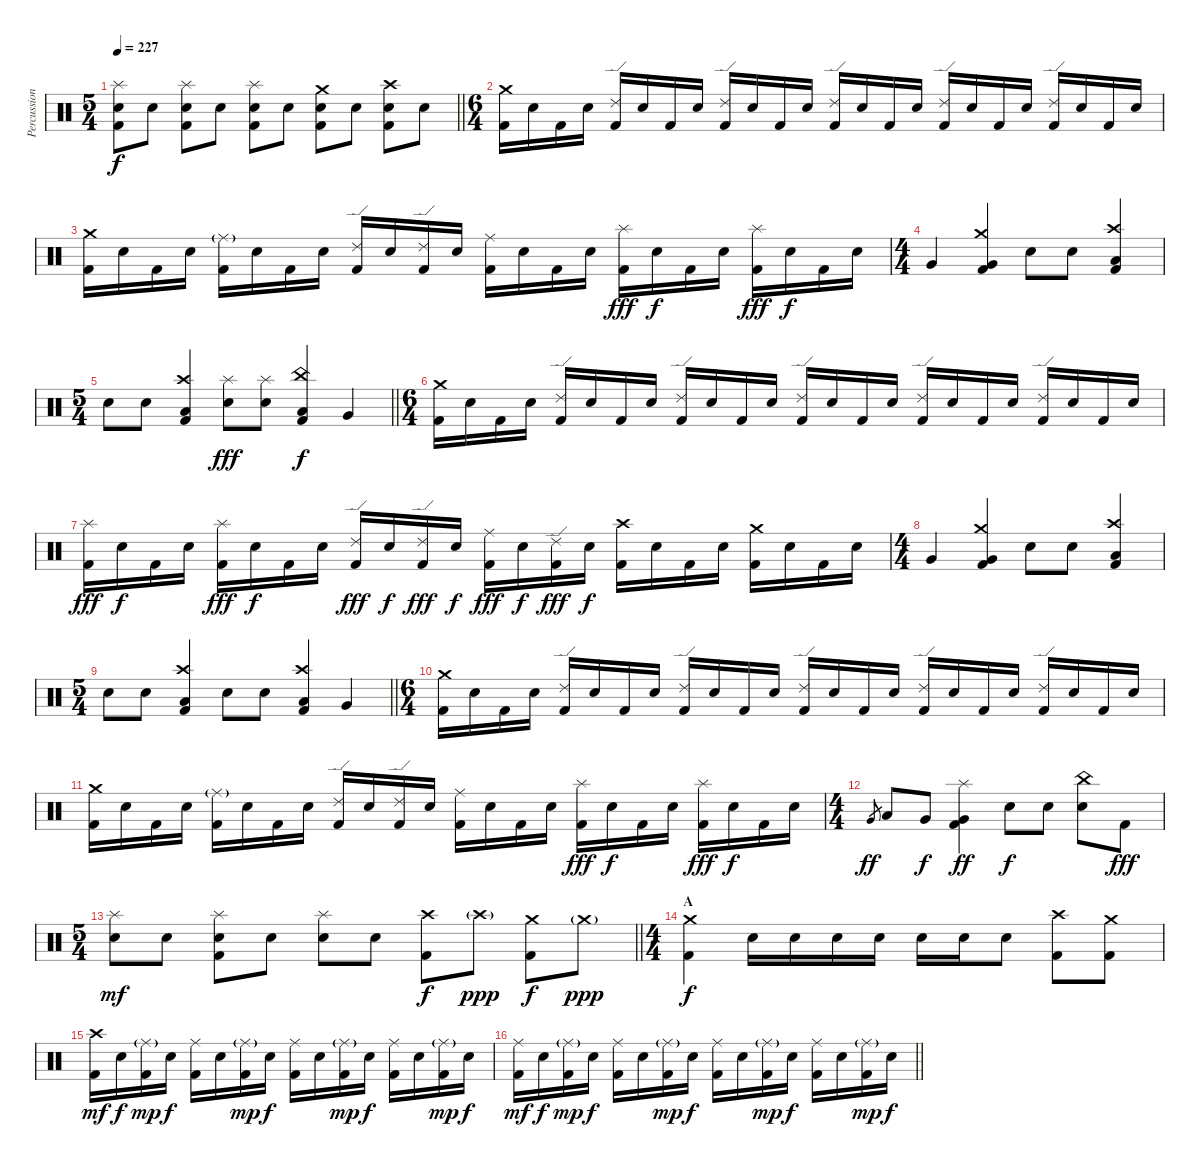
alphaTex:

\track ("Percussion" "Percussion") {instrument percussion}
\staff {score}
\articulation defaults
\ts (5 4)
\tempo 227
\clef neutral
\barLineRight lightlight
\ks c
("Splash (hit)" "Electric Snare (hit)" "Kick (hit) 2").8{dy f} "Electric Snare (hit)".8 ("Splash (hit)" "Electric Snare (hit)" "Kick (hit) 2").8 "Electric Snare (hit)".8 ("Splash (hit)" "Electric Snare (hit)" "Kick (hit) 2").8 "Electric Snare (hit)".8 ("Crash medium (hit)" "Electric Snare (hit)" "Kick (hit) 2").8 "Electric Snare (hit)".8 ("Crash high (hit)" "Electric Snare (hit)" "Kick (hit) 2").8 "Electric Snare (hit)".8 |
\ts (6 4)
\section ("" "")
("Crash medium (hit)" "Kick (hit) 2").16 "Electric Snare (hit)".16 "Kick (hit) 2".16 "Electric Snare (hit)".16 ("Ride (edge) 2" "Kick (hit) 2").16 "Electric Snare (hit)".16 "Kick (hit) 2".16 "Electric Snare (hit)".16 ("Ride (edge) 2" "Kick (hit) 2").16 "Electric Snare (hit)".16 "Kick (hit) 2".16 "Electric Snare (hit)".16 ("Ride (edge) 2" "Kick (hit) 2").16 "Electric Snare (hit)".16 "Kick (hit) 2".16 "Electric Snare (hit)".16 ("Ride (edge) 2" "Kick (hit) 2").16 "Electric Snare (hit)".16 "Kick (hit) 2".16 "Electric Snare (hit)".16 ("Ride (edge) 2" "Kick (hit) 2").16 "Electric Snare (hit)".16 "Kick (hit) 2".16 "Electric Snare (hit)".16 |
("Crash medium (hit)" "Kick (hit) 2").16 "Electric Snare (hit)".16 "Kick (hit) 2".16 "Electric Snare (hit)".16 ("Ride (middle)"{g} "Kick (hit) 2").16 "Electric Snare (hit)".16 "Kick (hit) 2".16 "Electric Snare (hit)".16 ("Ride (edge) 2" "Kick (hit) 2").16 "Electric Snare (hit)".16 ("Ride (edge) 2" "Kick (hit) 2").16 "Electric Snare (hit)".16 ("Ride (middle)" "Kick (hit) 2").16 "Electric Snare (hit)".16 "Kick (hit) 2".16 "Electric Snare (hit)".16 ("Splash (hit)" "Kick (hit) 2").16{dy fff} "Electric Snare (hit)".16{dy f} "Kick (hit) 2".16 "Electric Snare (hit)".16 ("Splash (hit)" "Kick (hit) 2").16{dy fff} "Electric Snare (hit)".16{dy f} "Kick (hit) 2".16 "Electric Snare (hit)".16 |
\ts (4 4)
"Very Low Tom (hit)".4 ("Crash medium (hit)" "Very Low Tom (hit)" "Kick (hit) 2").4 "Electric Snare (hit)".8 "Electric Snare (hit)".8 ("Crash high (hit)" "Low Tom (hit)" "Kick (hit) 2").4 |
\ts (5 4)
\barLineRight lightlight "Electric Snare (hit)".8 "Electric Snare (hit)".8
("Crash high (hit)" "Low Tom (hit)" "Kick (hit) 2").4 ("Splash (hit)" "Electric Snare (hit)").8{dy fff} ("Splash (hit)" "Electric Snare (hit)").8 ("China (hit)" "Low Floor Tom (hit)" "Kick (hit) 2").4{dy f} "Very Low Tom (hit)".4 |
\ts (6 4)
\section ("" "")
("Crash medium (hit)" "Kick (hit) 2").16 "Electric Snare (hit)".16 "Kick (hit) 2".16 "Electric Snare (hit)".16 ("Ride (edge) 2" "Kick (hit) 2").16 "Electric Snare (hit)".16 "Kick (hit) 2".16 "Electric Snare (hit)".16 ("Ride (edge) 2" "Kick (hit) 2").16 "Electric Snare (hit)".16 "Kick (hit) 2".16 "Electric Snare (hit)".16 ("Ride (edge) 2" "Kick (hit) 2").16 "Electric Snare (hit)".16 "Kick (hit) 2".16 "Electric Snare (hit)".16 ("Ride (edge) 2" "Kick (hit) 2").16 "Electric Snare (hit)".16 "Kick (hit) 2".16 "Electric Snare (hit)".16 ("Ride (edge) 2" "Kick (hit) 2").16 "Electric Snare (hit)".16 "Kick (hit) 2".16 "Electric Snare (hit)".16 |
("Splash (hit)" "Kick (hit) 2").16{dy fff} "Electric Snare (hit)".16{dy f} "Kick (hit) 2".16 "Electric Snare (hit)".16 ("Splash (hit)" "Kick (hit) 2").16{dy fff} "Electric Snare (hit)".16{dy f} "Kick (hit) 2".16 "Electric Snare (hit)".16 ("Ride (edge) 2" "Kick (hit) 2").16{dy fff} "Electric Snare (hit)".16{dy f} ("Ride (edge) 2" "Kick (hit) 2").16{dy fff} "Electric Snare (hit)".16{dy f} ("Ride (middle)" "Kick (hit) 2").16{dy fff} "Electric Snare (hit)".16{dy f} ("Ride (edge) 2" "Kick (hit) 2").16{dy fff} "Electric Snare (hit)".16{dy f} ("Crash high (hit)" "Kick (hit) 2").16 "Electric Snare (hit)".16 "Kick (hit) 2".16 "Electric Snare (hit)".16 ("Crash medium (hit)" "Kick (hit) 2").16 "Electric Snare (hit)".16 "Kick (hit) 2".16 "Electric Snare (hit)".16 |
\ts (4 4)
"Very Low Tom (hit)".4 ("Crash medium (hit)" "Very Low Tom (hit)" "Kick (hit) 2").4 "Electric Snare (hit)".8 "Electric Snare (hit)".8 ("Crash high (hit)" "Low Tom (hit)" "Kick (hit) 2").4 |
\ts (5 4)
\barLineRight lightlight "Electric Snare (hit)".8 "Electric Snare (hit)".8
("Crash high (hit)" "Low Tom (hit)" "Kick (hit) 2").4 "Electric Snare (hit)".8 "Electric Snare (hit)".8 ("Crash high (hit)" "Low Floor Tom (hit)" "Kick (hit) 2").4 "Very Low Tom (hit)".4 |
\ts (6 4)
\section ("" "")
("Crash medium (hit)" "Kick (hit) 2").16 "Electric Snare (hit)".16 "Kick (hit) 2".16 "Electric Snare (hit)".16 ("Ride (edge) 2" "Kick (hit) 2").16 "Electric Snare (hit)".16 "Kick (hit) 2".16 "Electric Snare (hit)".16 ("Ride (edge) 2" "Kick (hit) 2").16 "Electric Snare (hit)".16 "Kick (hit) 2".16 "Electric Snare (hit)".16 ("Ride (edge) 2" "Kick (hit) 2").16 "Electric Snare (hit)".16 "Kick (hit) 2".16 "Electric Snare (hit)".16 ("Ride (edge) 2" "Kick (hit) 2").16 "Electric Snare (hit)".16 "Kick (hit) 2".16 "Electric Snare (hit)".16 ("Ride (edge) 2" "Kick (hit) 2").16 "Electric Snare (hit)".16 "Kick (hit) 2".16 "Electric Snare (hit)".16 |
("Crash medium (hit)" "Kick (hit) 2").16 "Electric Snare (hit)".16 "Kick (hit) 2".16 "Electric Snare (hit)".16 ("Ride (middle)"{g} "Kick (hit) 2").16 "Electric Snare (hit)".16 "Kick (hit) 2".16 "Electric Snare (hit)".16 ("Ride (edge) 2" "Kick (hit) 2").16 "Electric Snare (hit)".16 ("Ride (edge) 2" "Kick (hit) 2").16 "Electric Snare (hit)".16 ("Ride (middle)" "Kick (hit) 2").16 "Electric Snare (hit)".16 "Kick (hit) 2".16 "Electric Snare (hit)".16 ("Splash (hit)" "Kick (hit) 2").16{dy fff} "Electric Snare (hit)".16{dy f} "Kick (hit) 2".16 "Electric Snare (hit)".16 ("Splash (hit)" "Kick (hit) 2").16{dy fff} "Electric Snare (hit)".16{dy f} "Kick (hit) 2".16 "Electric Snare (hit)".16 |
\ts (4 4)
"Very Low Tom (hit)".8{gr dy ff} "Low Tom (hit)".8 "Very Low Tom (hit)".8{dy f} ("Splash (hit)" "Very Low Tom (hit)" "Kick (hit) 2").4{dy ff} "Electric Snare (hit)".8{dy f} "Electric Snare (hit)".8 ("China (hit)" "Electric Snare (hit)").8 "Kick (hit) 2".8{dy fff} |
\ts (5 4)
\barLineRight lightlight
("Splash (hit)" "Electric Snare (hit)").8{dy mf} "Electric Snare (hit)".8 ("Splash (hit)" "Electric Snare (hit)" "Kick (hit) 2").8 "Electric Snare (hit)".8 ("Splash (hit)" "Electric Snare (hit)").8 "Electric Snare (hit)".8 ("Crash high (hit)" "Kick (hit) 2").8{dy f} "Crash high (hit)"{g}.8{dy ppp} ("Crash medium (hit)" "Kick (hit) 2").8{dy f} "Crash medium (hit)"{g}.8{dy ppp} |
\ts (4 4)
\section ("" "A")
("Crash medium (hit)" "Kick (hit) 2").4{dy f} "Electric Snare (hit)".16 "Electric Snare (hit)".16 "Electric Snare (hit)".16 "Electric Snare (hit)".16 "Electric Snare (hit)".16 "Electric Snare (hit)".16 "Electric Snare (hit)".8 ("Crash high (hit)" "Kick (hit) 2").8 ("Crash medium (hit)" "Kick (hit) 2").8 |
("Crash high (hit)" "Kick (hit) 2").16{dy mf} "Electric Snare (hit)".16{dy f} ("Ride (middle)"{g} "Kick (hit) 2").16{dy mp} "Electric Snare (hit)".16{dy f} ("Ride (middle)" "Kick (hit) 2").16 "Electric Snare (hit)".16 ("Ride (middle)"{g} "Kick (hit) 2").16{dy mp} "Electric Snare (hit)".16{dy f} ("Ride (middle)" "Kick (hit) 2").16 "Electric Snare (hit)".16 ("Ride (middle)"{g} "Kick (hit) 2").16{dy mp} "Electric Snare (hit)".16{dy f} ("Ride (middle)" "Kick (hit) 2").16 "Electric Snare (hit)".16 ("Ride (middle)"{g} "Kick (hit) 2").16{dy mp} "Electric Snare (hit)".16{dy f} |
\barLineRight lightlight
("Ride (middle)" "Kick (hit) 2").16{dy mf} "Electric Snare (hit)".16{dy f} ("Ride (middle)"{g} "Kick (hit) 2").16{dy mp} "Electric Snare (hit)".16{dy f} ("Ride (middle)" "Kick (hit) 2").16 "Electric Snare (hit)".16 ("Ride (middle)"{g} "Kick (hit) 2").16{dy mp} "Electric Snare (hit)".16{dy f} ("Ride (middle)" "Kick (hit) 2").16 "Electric Snare (hit)".16 ("Ride (middle)"{g} "Kick (hit) 2").16{dy mp} "Electric Snare (hit)".16{dy f} ("Ride (middle)" "Kick (hit) 2").16 "Electric Snare (hit)".16 ("Ride (middle)"{g} "Kick (hit) 2").16{dy mp} "Electric Snare (hit)".16{dy f}
